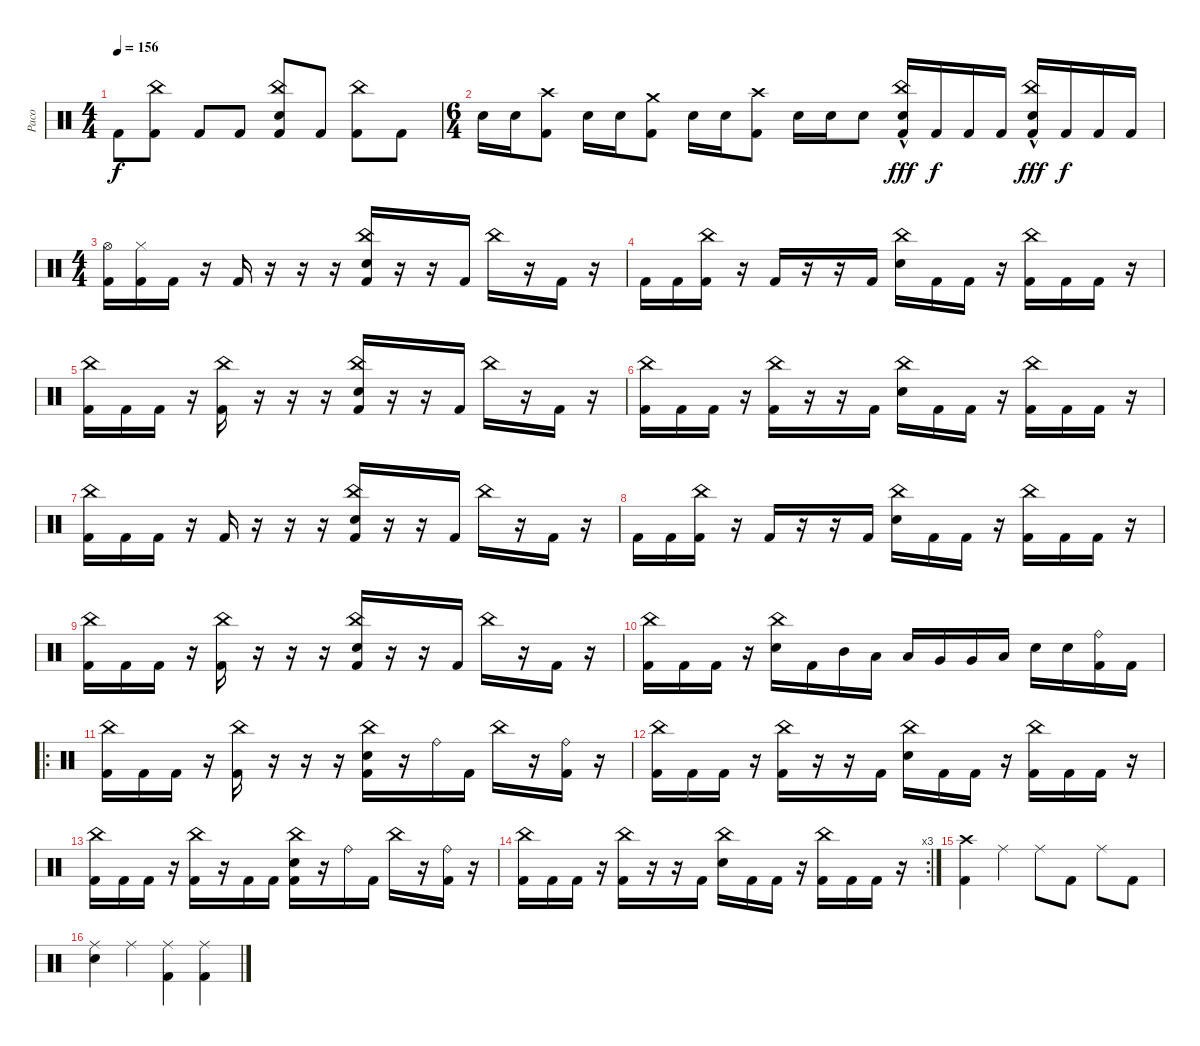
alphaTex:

\track ("Paco" "Paco") {instrument percussion}
\staff {score}
\articulation defaults
\ts (4 4)
\tempo 156
\clef neutral
\ks c "Kick (hit) 2".8{dy f}
("China (hit)" "Kick (hit) 2").8 "Kick (hit) 2".8 "Kick (hit) 2".8 ("China (hit)" "Electric Snare (hit)" "Kick (hit) 2").8 "Kick (hit) 2".8 ("China (hit)" "Kick (hit) 2").8 "Kick (hit) 2".8 |
\ts (6 4)
"Electric Snare (hit)".16 "Electric Snare (hit)".16 ("Crash high (hit)" "Kick (hit) 2").8 "Electric Snare (hit)".16 "Electric Snare (hit)".16 ("Crash medium (hit)" "Kick (hit) 2").8 "Electric Snare (hit)".16 "Electric Snare (hit)".16 ("Crash high (hit)" "Kick (hit) 2").8 "Electric Snare (hit)".16 "Electric Snare (hit)".16 "Electric Snare (hit)".8 ("China (hit)" "Electric Snare (hit)"{hac} "Kick (hit) 2").16{dy fff} "Kick (hit) 2".16{dy f} "Kick (hit) 2".16 "Kick (hit) 2".16 ("China (hit)" "Electric Snare (hit)"{hac} "Kick (hit) 2").16{dy fff} "Kick (hit) 2".16{dy f} "Kick (hit) 2".16 "Kick (hit) 2".16 |
\ts (4 4)
("Hi-Hat (open)" "Kick (hit) 2").16 ("Hi-Hat (closed)" "Kick (hit) 2").16 "Kick (hit) 2".16 r.16 "Kick (hit) 2".16 r.16 r.16 r.16 ("China (hit)" "Electric Snare (hit)" "Kick (hit) 2").16 r.16 r.16 "Kick (hit) 2".16 "China (hit)".16 r.16 "Kick (hit) 2".16 r.16 |
"Kick (hit) 2".16 "Kick (hit) 2".16 ("China (hit)" "Kick (hit) 2").16 r.16 "Kick (hit) 2".16 r.16 r.16 "Kick (hit) 2".16 ("China (hit)" "Electric Snare (hit)").16 "Kick (hit) 2".16 "Kick (hit) 2".16 r.16 ("China (hit)" "Kick (hit) 2").16 "Kick (hit) 2".16 "Kick (hit) 2".16 r.16 |
("China (hit)" "Kick (hit) 2").16 "Kick (hit) 2".16 "Kick (hit) 2".16 r.16 ("China (hit)" "Kick (hit) 2").16 r.16 r.16 r.16 ("China (hit)" "Electric Snare (hit)" "Kick (hit) 2").16 r.16 r.16 "Kick (hit) 2".16 "China (hit)".16 r.16 "Kick (hit) 2".16 r.16 |
("China (hit)" "Kick (hit) 2").16 "Kick (hit) 2".16 "Kick (hit) 2".16 r.16 ("China (hit)" "Kick (hit) 2").16 r.16 r.16 "Kick (hit) 2".16 ("China (hit)" "Electric Snare (hit)").16 "Kick (hit) 2".16 "Kick (hit) 2".16 r.16 ("China (hit)" "Kick (hit) 2").16 "Kick (hit) 2".16 "Kick (hit) 2".16 r.16 |
("China (hit)" "Kick (hit) 2").16 "Kick (hit) 2".16 "Kick (hit) 2".16 r.16 "Kick (hit) 2".16 r.16 r.16 r.16 ("China (hit)" "Electric Snare (hit)" "Kick (hit) 2").16 r.16 r.16 "Kick (hit) 2".16 "China (hit)".16 r.16 "Kick (hit) 2".16 r.16 |
"Kick (hit) 2".16 "Kick (hit) 2".16 ("China (hit)" "Kick (hit) 2").16 r.16 "Kick (hit) 2".16 r.16 r.16 "Kick (hit) 2".16 ("China (hit)" "Electric Snare (hit)").16 "Kick (hit) 2".16 "Kick (hit) 2".16 r.16 ("China (hit)" "Kick (hit) 2").16 "Kick (hit) 2".16 "Kick (hit) 2".16 r.16 |
("China (hit)" "Kick (hit) 2").16 "Kick (hit) 2".16 "Kick (hit) 2".16 r.16 ("China (hit)" "Kick (hit) 2").16 r.16 r.16 r.16 ("China (hit)" "Electric Snare (hit)" "Kick (hit) 2").16 r.16 r.16 "Kick (hit) 2".16 "China (hit)".16 r.16 "Kick (hit) 2".16 r.16 |
("China (hit)" "Kick (hit) 2").16 "Kick (hit) 2".16 "Kick (hit) 2".16 r.16 ("China (hit)" "Electric Snare (hit)").16 "Kick (hit) 2".16 "Mid Tom (hit)".16 "Low Tom (hit)".16 "Low Tom (hit)".16 "Very Low Tom (hit)".16 "Very Low Tom (hit)".16 "Low Floor Tom (hit)".16 "Electric Snare (hit)".16 "Electric Snare (hit)".16 ("Ride (bell)" "Kick (hit) 2").16 "Kick (hit) 2".16 |
\ro
("China (hit)" "Kick (hit) 2").16 "Kick (hit) 2".16 "Kick (hit) 2".16 r.16 ("China (hit)" "Kick (hit) 2").16 r.16 r.16 r.16 ("China (hit)" "Electric Snare (hit)" "Kick (hit) 2").16 r.16 "Ride (bell)".16 "Kick (hit) 2".16 "China (hit)".16 r.16 ("Ride (bell)" "Kick (hit) 2").16 r.16 |
("China (hit)" "Kick (hit) 2").16 "Kick (hit) 2".16 "Kick (hit) 2".16 r.16 ("China (hit)" "Kick (hit) 2").16 r.16 r.16 "Kick (hit) 2".16 ("China (hit)" "Electric Snare (hit)").16 "Kick (hit) 2".16 "Kick (hit) 2".16 r.16 ("China (hit)" "Kick (hit) 2").16 "Kick (hit) 2".16 "Kick (hit) 2".16 r.16 |
("China (hit)" "Kick (hit) 2").16 "Kick (hit) 2".16 "Kick (hit) 2".16 r.16 ("China (hit)" "Kick (hit) 2").16 r.16 "Kick (hit) 2".16 "Kick (hit) 2".16 ("China (hit)" "Electric Snare (hit)" "Kick (hit) 2").16 r.16 "Ride (bell)".16 "Kick (hit) 2".16 "China (hit)".16 r.16 ("Ride (bell)" "Kick (hit) 2").16 r.16 |
\rc 3
("China (hit)" "Kick (hit) 2").16 "Kick (hit) 2".16 "Kick (hit) 2".16 r.16 ("China (hit)" "Kick (hit) 2").16 r.16 r.16 "Kick (hit) 2".16 ("China (hit)" "Electric Snare (hit)").16 "Kick (hit) 2".16 "Kick (hit) 2".16 r.16 ("China (hit)" "Kick (hit) 2").16 "Kick (hit) 2".16 "Kick (hit) 2".16 r.16 |
("Crash high (hit)" "Kick (hit) 2").4 "Ride (middle)".4 "Ride (middle)".8 "Kick (hit) 2".8 "Ride (middle)".8 "Kick (hit) 2".8 |
("Ride (middle)" "Electric Snare (hit)").4 "Ride (middle)".4 ("Ride (middle)" "Kick (hit) 2").4 ("Ride (middle)" "Kick (hit) 2").4
